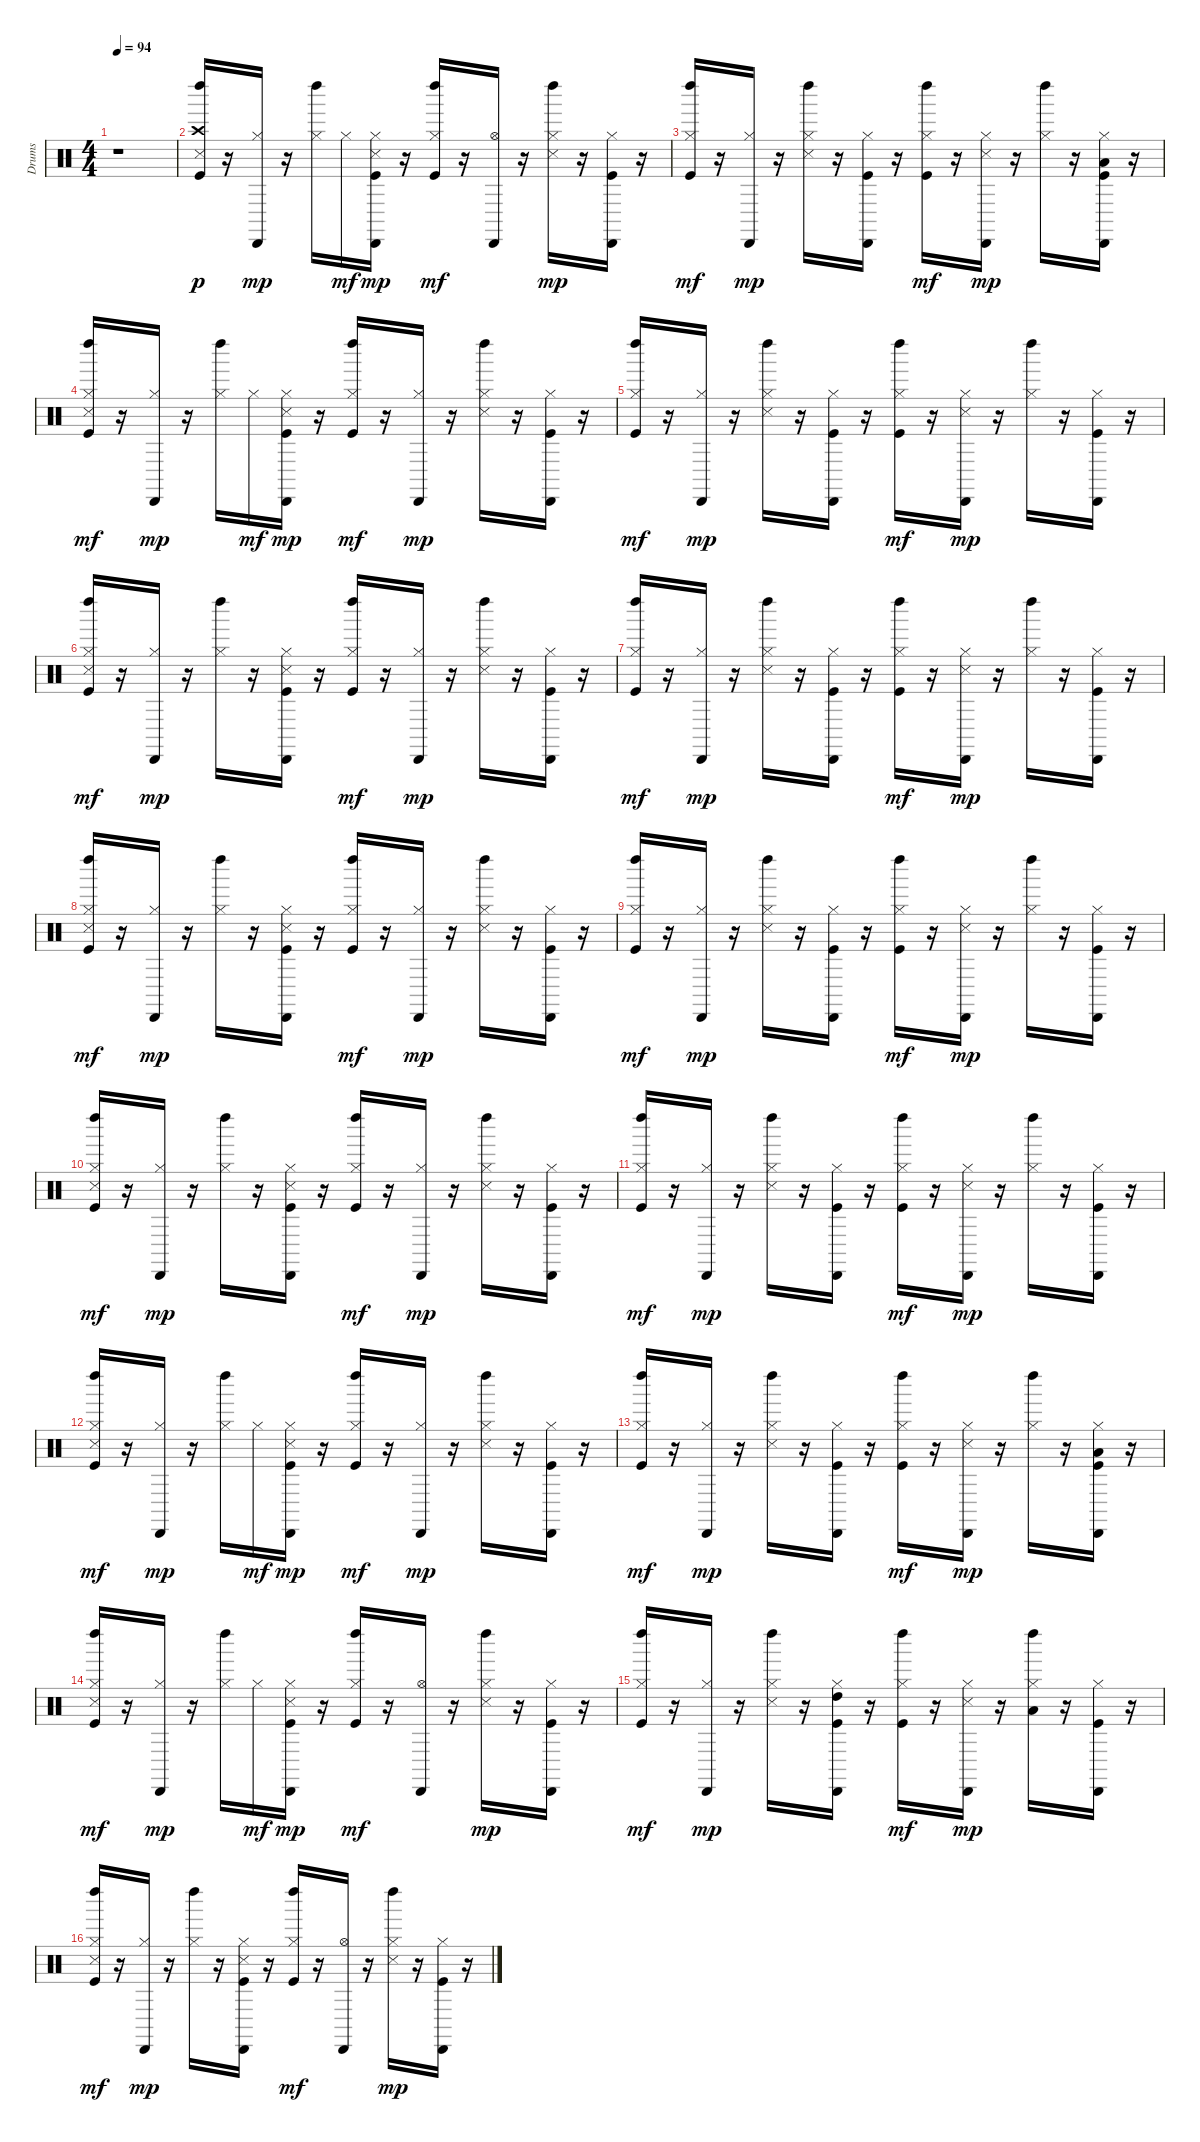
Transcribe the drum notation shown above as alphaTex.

\track ("Drums" "Drums") {instrument percussion}
\staff {score}
\articulation defaults
\ts (4 4)
\tempo 94
\clef neutral
\ks c
r.1{dy p} |
("Left Maraca (hit)" "Crash high (hit)" "Snare (side stick) 3" "Kick (hit)").16 r.16 ("Cabasa (hit)" "Hi-Hat (closed)").16{dy mp} r.16 ("Left Maraca (hit)" "Hi-Hat (closed)").16 "Hi-Hat (closed)".16{dy mf} ("Cabasa (hit)" "Hi-Hat (closed)" "Snare (side stick) 3" "Kick (hit)").16{dy mp} r.16 ("Left Maraca (hit)" "Hi-Hat (closed)" "Kick (hit)").16{dy mf} r.16 ("Cabasa (hit)" "Hi-Hat (open)").16 r.16 ("Left Maraca (hit)" "Hi-Hat (closed)" "Snare (side stick) 3").16{dy mp} r.16 ("Cabasa (hit)" "Hi-Hat (closed)" "Kick (hit)").16 r.16 |
("Left Maraca (hit)" "Hi-Hat (closed)" "Kick (hit)").16{dy mf} r.16 ("Cabasa (hit)" "Hi-Hat (closed)").16{dy mp} r.16 ("Left Maraca (hit)" "Hi-Hat (closed)" "Snare (side stick) 3").16 r.16 ("Cabasa (hit)" "Hi-Hat (closed)" "Kick (hit)").16 r.16 ("Left Maraca (hit)" "Hi-Hat (closed)" "Kick (hit)").16{dy mf} r.16 ("Cabasa (hit)" "Hi-Hat (closed)" "Snare (side stick) 3").16{dy mp} r.16 ("Left Maraca (hit)" "Hi-Hat (closed)").16 r.16 ("Cabasa (hit)" "Low Tom (hit)" "Hi-Hat (closed)" "Kick (hit)").16 r.16 |
("Left Maraca (hit)" "Hi-Hat (closed)" "Snare (side stick) 3" "Kick (hit)").16{dy mf} r.16 ("Cabasa (hit)" "Hi-Hat (closed)").16{dy mp} r.16 ("Left Maraca (hit)" "Hi-Hat (closed)").16 "Hi-Hat (closed)".16{dy mf} ("Cabasa (hit)" "Hi-Hat (closed)" "Snare (side stick) 3" "Kick (hit)").16{dy mp} r.16 ("Left Maraca (hit)" "Hi-Hat (closed)" "Kick (hit)").16{dy mf} r.16 ("Cabasa (hit)" "Hi-Hat (closed)").16{dy mp} r.16 ("Left Maraca (hit)" "Hi-Hat (closed)" "Snare (side stick) 3").16 r.16 ("Cabasa (hit)" "Hi-Hat (closed)" "Kick (hit)").16 r.16 |
("Left Maraca (hit)" "Hi-Hat (closed)" "Kick (hit)").16{dy mf} r.16 ("Cabasa (hit)" "Hi-Hat (closed)").16{dy mp} r.16 ("Left Maraca (hit)" "Hi-Hat (closed)" "Snare (side stick) 3").16 r.16 ("Cabasa (hit)" "Hi-Hat (closed)" "Kick (hit)").16 r.16 ("Left Maraca (hit)" "Hi-Hat (closed)" "Kick (hit)").16{dy mf} r.16 ("Cabasa (hit)" "Hi-Hat (closed)" "Snare (side stick) 3").16{dy mp} r.16 ("Left Maraca (hit)" "Hi-Hat (closed)").16 r.16 ("Cabasa (hit)" "Hi-Hat (closed)" "Kick (hit)").16 r.16 |
("Left Maraca (hit)" "Hi-Hat (closed)" "Snare (side stick) 3" "Kick (hit)").16{dy mf} r.16 ("Cabasa (hit)" "Hi-Hat (closed)").16{dy mp} r.16 ("Left Maraca (hit)" "Hi-Hat (closed)").16 r.16 ("Cabasa (hit)" "Hi-Hat (closed)" "Snare (side stick) 3" "Kick (hit)").16 r.16 ("Left Maraca (hit)" "Hi-Hat (closed)" "Kick (hit)").16{dy mf} r.16 ("Cabasa (hit)" "Hi-Hat (closed)").16{dy mp} r.16 ("Left Maraca (hit)" "Hi-Hat (closed)" "Snare (side stick) 3").16 r.16 ("Cabasa (hit)" "Hi-Hat (closed)" "Kick (hit)").16 r.16 |
("Left Maraca (hit)" "Hi-Hat (closed)" "Kick (hit)").16{dy mf} r.16 ("Cabasa (hit)" "Hi-Hat (closed)").16{dy mp} r.16 ("Left Maraca (hit)" "Hi-Hat (closed)" "Snare (side stick) 3").16 r.16 ("Cabasa (hit)" "Hi-Hat (closed)" "Kick (hit)").16 r.16 ("Left Maraca (hit)" "Hi-Hat (closed)" "Kick (hit)").16{dy mf} r.16 ("Cabasa (hit)" "Hi-Hat (closed)" "Snare (side stick) 3").16{dy mp} r.16 ("Left Maraca (hit)" "Hi-Hat (closed)").16 r.16 ("Cabasa (hit)" "Hi-Hat (closed)" "Kick (hit)").16 r.16 |
("Left Maraca (hit)" "Hi-Hat (closed)" "Snare (side stick) 3" "Kick (hit)").16{dy mf} r.16 ("Cabasa (hit)" "Hi-Hat (closed)").16{dy mp} r.16 ("Left Maraca (hit)" "Hi-Hat (closed)").16 r.16 ("Cabasa (hit)" "Hi-Hat (closed)" "Snare (side stick) 3" "Kick (hit)").16 r.16 ("Left Maraca (hit)" "Hi-Hat (closed)" "Kick (hit)").16{dy mf} r.16 ("Cabasa (hit)" "Hi-Hat (closed)").16{dy mp} r.16 ("Left Maraca (hit)" "Hi-Hat (closed)" "Snare (side stick) 3").16 r.16 ("Cabasa (hit)" "Hi-Hat (closed)" "Kick (hit)").16 r.16 |
("Left Maraca (hit)" "Hi-Hat (closed)" "Kick (hit)").16{dy mf} r.16 ("Cabasa (hit)" "Hi-Hat (closed)").16{dy mp} r.16 ("Left Maraca (hit)" "Hi-Hat (closed)" "Snare (side stick) 3").16 r.16 ("Cabasa (hit)" "Hi-Hat (closed)" "Kick (hit)").16 r.16 ("Left Maraca (hit)" "Hi-Hat (closed)" "Kick (hit)").16{dy mf} r.16 ("Cabasa (hit)" "Hi-Hat (closed)" "Snare (side stick) 3").16{dy mp} r.16 ("Left Maraca (hit)" "Hi-Hat (closed)").16 r.16 ("Cabasa (hit)" "Hi-Hat (closed)" "Kick (hit)").16 r.16 |
("Left Maraca (hit)" "Hi-Hat (closed)" "Snare (side stick) 3" "Kick (hit)").16{dy mf} r.16 ("Cabasa (hit)" "Hi-Hat (closed)").16{dy mp} r.16 ("Left Maraca (hit)" "Hi-Hat (closed)").16 r.16 ("Cabasa (hit)" "Hi-Hat (closed)" "Snare (side stick) 3" "Kick (hit)").16 r.16 ("Left Maraca (hit)" "Hi-Hat (closed)" "Kick (hit)").16{dy mf} r.16 ("Cabasa (hit)" "Hi-Hat (closed)").16{dy mp} r.16 ("Left Maraca (hit)" "Hi-Hat (closed)" "Snare (side stick) 3").16 r.16 ("Cabasa (hit)" "Hi-Hat (closed)" "Kick (hit)").16 r.16 |
("Left Maraca (hit)" "Hi-Hat (closed)" "Kick (hit)").16{dy mf} r.16 ("Cabasa (hit)" "Hi-Hat (closed)").16{dy mp} r.16 ("Left Maraca (hit)" "Hi-Hat (closed)" "Snare (side stick) 3").16 r.16 ("Cabasa (hit)" "Hi-Hat (closed)" "Kick (hit)").16 r.16 ("Left Maraca (hit)" "Hi-Hat (closed)" "Kick (hit)").16{dy mf} r.16 ("Cabasa (hit)" "Hi-Hat (closed)" "Snare (side stick) 3").16{dy mp} r.16 ("Left Maraca (hit)" "Hi-Hat (closed)").16 r.16 ("Cabasa (hit)" "Hi-Hat (closed)" "Kick (hit)").16 r.16 |
("Left Maraca (hit)" "Hi-Hat (closed)" "Snare (side stick) 3" "Kick (hit)").16{dy mf} r.16 ("Cabasa (hit)" "Hi-Hat (closed)").16{dy mp} r.16 ("Left Maraca (hit)" "Hi-Hat (closed)").16 "Hi-Hat (closed)".16{dy mf} ("Cabasa (hit)" "Hi-Hat (closed)" "Snare (side stick) 3" "Kick (hit)").16{dy mp} r.16 ("Left Maraca (hit)" "Hi-Hat (closed)" "Kick (hit)").16{dy mf} r.16 ("Cabasa (hit)" "Hi-Hat (closed)").16{dy mp} r.16 ("Left Maraca (hit)" "Hi-Hat (closed)" "Snare (side stick) 3").16 r.16 ("Cabasa (hit)" "Hi-Hat (closed)" "Kick (hit)").16 r.16 |
("Left Maraca (hit)" "Hi-Hat (closed)" "Kick (hit)").16{dy mf} r.16 ("Cabasa (hit)" "Hi-Hat (closed)").16{dy mp} r.16 ("Left Maraca (hit)" "Hi-Hat (closed)" "Snare (side stick) 3").16 r.16 ("Cabasa (hit)" "Hi-Hat (closed)" "Kick (hit)").16 r.16 ("Left Maraca (hit)" "Hi-Hat (closed)" "Kick (hit)").16{dy mf} r.16 ("Cabasa (hit)" "Hi-Hat (closed)" "Snare (side stick) 3").16{dy mp} r.16 ("Left Maraca (hit)" "Hi-Hat (closed)").16 r.16 ("Cabasa (hit)" "Low Tom (hit)" "Hi-Hat (closed)" "Kick (hit)").16 r.16 |
("Left Maraca (hit)" "Hi-Hat (closed)" "Snare (side stick) 3" "Kick (hit)").16{dy mf} r.16 ("Cabasa (hit)" "Hi-Hat (closed)").16{dy mp} r.16 ("Left Maraca (hit)" "Hi-Hat (closed)").16 "Hi-Hat (closed)".16{dy mf} ("Cabasa (hit)" "Hi-Hat (closed)" "Snare (side stick) 3" "Kick (hit)").16{dy mp} r.16 ("Left Maraca (hit)" "Hi-Hat (closed)" "Kick (hit)").16{dy mf} r.16 ("Cabasa (hit)" "Hi-Hat (open)").16 r.16 ("Left Maraca (hit)" "Hi-Hat (closed)" "Snare (side stick) 3").16{dy mp} r.16 ("Cabasa (hit)" "Hi-Hat (closed)" "Kick (hit)").16 r.16 |
("Left Maraca (hit)" "Hi-Hat (closed)" "Kick (hit)").16{dy mf} r.16 ("Cabasa (hit)" "Hi-Hat (closed)").16{dy mp} r.16 ("Left Maraca (hit)" "Hi-Hat (closed)" "Snare (side stick) 3").16 r.16 ("Cabasa (hit)" "High Tom (hit)" "Hi-Hat (closed)" "Kick (hit)").16 r.16 ("Left Maraca (hit)" "Hi-Hat (closed)" "Kick (hit)").16{dy mf} r.16 ("Cabasa (hit)" "Hi-Hat (closed)" "Snare (side stick) 3").16{dy mp} r.16 ("Left Maraca (hit)" "Low Tom (hit)" "Hi-Hat (closed)").16 r.16 ("Cabasa (hit)" "Hi-Hat (closed)" "Kick (hit)").16 r.16 |
("Left Maraca (hit)" "Hi-Hat (closed)" "Snare (side stick) 3" "Kick (hit)").16{dy mf} r.16 ("Cabasa (hit)" "Hi-Hat (closed)").16{dy mp} r.16 ("Left Maraca (hit)" "Hi-Hat (closed)").16 r.16 ("Cabasa (hit)" "Hi-Hat (closed)" "Snare (side stick) 3" "Kick (hit)").16 r.16 ("Left Maraca (hit)" "Hi-Hat (closed)" "Kick (hit)").16{dy mf} r.16 ("Cabasa (hit)" "Hi-Hat (open)").16 r.16 ("Left Maraca (hit)" "Hi-Hat (closed)" "Snare (side stick) 3").16{dy mp} r.16 ("Cabasa (hit)" "Hi-Hat (closed)" "Kick (hit)").16 r.16
